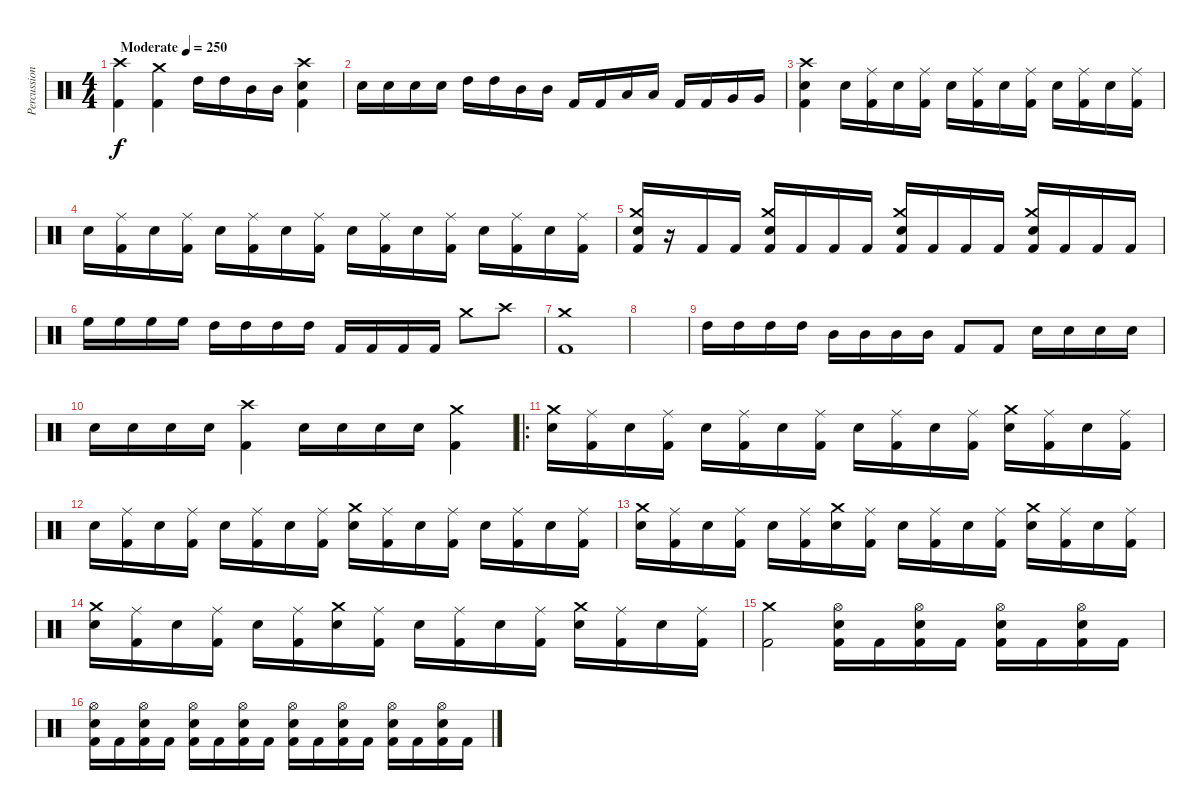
\track ("Percussion" "Percussion") {instrument percussion}
\staff {score}
\articulation defaults
\ts (4 4)
\tempo (250 "Moderate")
\clef neutral
\ks c
("Crash high (hit)" "Kick (hit) 2").4{dy f} ("Crash medium (hit)" "Kick (hit) 2").4 "High Tom (hit)".16 "High Tom (hit)".16 "Mid Tom (hit)".16 "Mid Tom (hit)".16 ("Crash high (hit)" "Electric Snare (hit)" "Kick (hit) 2").4 |
"Electric Snare (hit)".16 "Electric Snare (hit)".16 "Electric Snare (hit)".16 "Electric Snare (hit)".16 "High Tom (hit)".16 "High Tom (hit)".16 "Mid Tom (hit)".16 "Mid Tom (hit)".16 "Kick (hit) 2".16 "Kick (hit) 2".16 "Low Tom (hit)".16 "Low Tom (hit)".16 "Kick (hit) 2".16 "Kick (hit) 2".16 "Very Low Tom (hit)".16 "Very Low Tom (hit)".16 |
("Crash high (hit)" "Electric Snare (hit)" "Kick (hit) 2").4 "Electric Snare (hit)".16 ("Ride (middle)" "Kick (hit) 2").16 "Electric Snare (hit)".16 ("Ride (middle)" "Kick (hit) 2").16 "Electric Snare (hit)".16 ("Ride (middle)" "Kick (hit) 2").16 "Electric Snare (hit)".16 ("Ride (middle)" "Kick (hit) 2").16 "Electric Snare (hit)".16 ("Ride (middle)" "Kick (hit) 2").16 "Electric Snare (hit)".16 ("Ride (middle)" "Kick (hit) 2").16 |
"Electric Snare (hit)".16 ("Ride (middle)" "Kick (hit) 2").16 "Electric Snare (hit)".16 ("Ride (middle)" "Kick (hit) 2").16 "Electric Snare (hit)".16 ("Ride (middle)" "Kick (hit) 2").16 "Electric Snare (hit)".16 ("Ride (middle)" "Kick (hit) 2").16 "Electric Snare (hit)".16 ("Ride (middle)" "Kick (hit) 2").16 "Electric Snare (hit)".16 ("Ride (middle)" "Kick (hit) 2").16 "Electric Snare (hit)".16 ("Ride (middle)" "Kick (hit) 2").16 "Electric Snare (hit)".16 ("Ride (middle)" "Kick (hit) 2").16 |
("Crash medium (hit)" "Electric Snare (hit)" "Kick (hit) 2").16 r.16 "Kick (hit) 2".16 "Kick (hit) 2".16 ("Crash medium (hit)" "Electric Snare (hit)" "Kick (hit) 2").16 "Kick (hit) 2".16 "Kick (hit) 2".16 "Kick (hit) 2".16 ("Crash medium (hit)" "Electric Snare (hit)" "Kick (hit) 2").16 "Kick (hit) 2".16 "Kick (hit) 2".16 "Kick (hit) 2".16 ("Crash medium (hit)" "Electric Snare (hit)" "Kick (hit) 2").16 "Kick (hit) 2".16 "Kick (hit) 2".16 "Kick (hit) 2".16 |
"High Floor Tom (hit)".16 "High Floor Tom (hit)".16 "High Floor Tom (hit)".16 "High Floor Tom (hit)".16 "High Tom (hit)".16 "High Tom (hit)".16 "High Tom (hit)".16 "High Tom (hit)".16 "Kick (hit) 2".16 "Kick (hit) 2".16 "Kick (hit) 2".16 "Kick (hit) 2".16 "Crash medium (hit)".8 "Crash high (hit)".8 |
("Crash medium (hit)" "Kick (hit) 2").1 |
|
"High Tom (hit)".16 "High Tom (hit)".16 "High Tom (hit)".16 "High Tom (hit)".16 "Mid Tom (hit)".16 "Mid Tom (hit)".16 "Mid Tom (hit)".16 "Mid Tom (hit)".16 "Kick (hit) 2".8 "Kick (hit) 2".8 "Electric Snare (hit)".16 "Electric Snare (hit)".16 "Electric Snare (hit)".16 "Electric Snare (hit)".16 |
"Electric Snare (hit)".16 "Electric Snare (hit)".16 "Electric Snare (hit)".16 "Electric Snare (hit)".16 ("Crash high (hit)" "Kick (hit) 2").4 "Electric Snare (hit)".16 "Electric Snare (hit)".16 "Electric Snare (hit)".16 "Electric Snare (hit)".16 ("Crash medium (hit)" "Kick (hit) 2").4 |
\ro
("Crash medium (hit)" "Electric Snare (hit)").16 ("Ride (middle)" "Kick (hit) 2").16 "Electric Snare (hit)".16 ("Ride (middle)" "Kick (hit) 2").16 "Electric Snare (hit)".16 ("Ride (middle)" "Kick (hit) 2").16 "Electric Snare (hit)".16 ("Ride (middle)" "Kick (hit) 2").16 "Electric Snare (hit)".16 ("Ride (middle)" "Kick (hit) 2").16 "Electric Snare (hit)".16 ("Ride (middle)" "Kick (hit) 2").16 ("Crash medium (hit)" "Electric Snare (hit)").16 ("Ride (middle)" "Kick (hit) 2").16 "Electric Snare (hit)".16 ("Ride (middle)" "Kick (hit) 2").16 |
"Electric Snare (hit)".16 ("Ride (middle)" "Kick (hit) 2").16 "Electric Snare (hit)".16 ("Ride (middle)" "Kick (hit) 2").16 "Electric Snare (hit)".16 ("Ride (middle)" "Kick (hit) 2").16 "Electric Snare (hit)".16 ("Ride (middle)" "Kick (hit) 2").16 ("Crash medium (hit)" "Electric Snare (hit)").16 ("Ride (middle)" "Kick (hit) 2").16 "Electric Snare (hit)".16 ("Ride (middle)" "Kick (hit) 2").16 "Electric Snare (hit)".16 ("Ride (middle)" "Kick (hit) 2").16 "Electric Snare (hit)".16 ("Ride (middle)" "Kick (hit) 2").16 |
("Crash medium (hit)" "Electric Snare (hit)").16 ("Ride (middle)" "Kick (hit) 2").16 "Electric Snare (hit)".16 ("Ride (middle)" "Kick (hit) 2").16 "Electric Snare (hit)".16 ("Ride (middle)" "Kick (hit) 2").16 ("Crash medium (hit)" "Electric Snare (hit)").16 ("Ride (middle)" "Kick (hit) 2").16 "Electric Snare (hit)".16 ("Ride (middle)" "Kick (hit) 2").16 "Electric Snare (hit)".16 ("Ride (middle)" "Kick (hit) 2").16 ("Crash medium (hit)" "Electric Snare (hit)").16 ("Ride (middle)" "Kick (hit) 2").16 "Electric Snare (hit)".16 ("Ride (middle)" "Kick (hit) 2").16 |
("Crash medium (hit)" "Electric Snare (hit)").16 ("Ride (middle)" "Kick (hit) 2").16 "Electric Snare (hit)".16 ("Ride (middle)" "Kick (hit) 2").16 "Electric Snare (hit)".16 ("Ride (middle)" "Kick (hit) 2").16 ("Crash medium (hit)" "Electric Snare (hit)").16 ("Ride (middle)" "Kick (hit) 2").16 "Electric Snare (hit)".16 ("Ride (middle)" "Kick (hit) 2").16 "Electric Snare (hit)".16 ("Ride (middle)" "Kick (hit) 2").16 ("Crash medium (hit)" "Electric Snare (hit)").16 ("Ride (middle)" "Kick (hit) 2").16 "Electric Snare (hit)".16 ("Ride (middle)" "Kick (hit) 2").16 |
("Crash medium (hit)" "Kick (hit) 2").2 ("Hi-Hat (open)" "Electric Snare (hit)" "Kick (hit) 2").16 "Kick (hit) 2".16 ("Hi-Hat (open)" "Electric Snare (hit)" "Kick (hit) 2").16 "Kick (hit) 2".16 ("Hi-Hat (open)" "Electric Snare (hit)" "Kick (hit) 2").16 "Kick (hit) 2".16 ("Hi-Hat (open)" "Electric Snare (hit)" "Kick (hit) 2").16 "Kick (hit) 2".16 |
("Hi-Hat (open)" "Electric Snare (hit)" "Kick (hit) 2").16 "Kick (hit) 2".16 ("Hi-Hat (open)" "Electric Snare (hit)" "Kick (hit) 2").16 "Kick (hit) 2".16 ("Hi-Hat (open)" "Electric Snare (hit)" "Kick (hit) 2").16 "Kick (hit) 2".16 ("Hi-Hat (open)" "Electric Snare (hit)" "Kick (hit) 2").16 "Kick (hit) 2".16 ("Hi-Hat (open)" "Electric Snare (hit)" "Kick (hit) 2").16 "Kick (hit) 2".16 ("Hi-Hat (open)" "Electric Snare (hit)" "Kick (hit) 2").16 "Kick (hit) 2".16 ("Hi-Hat (open)" "Electric Snare (hit)" "Kick (hit) 2").16 "Kick (hit) 2".16 ("Hi-Hat (open)" "Electric Snare (hit)" "Kick (hit) 2").16 "Kick (hit) 2".16
